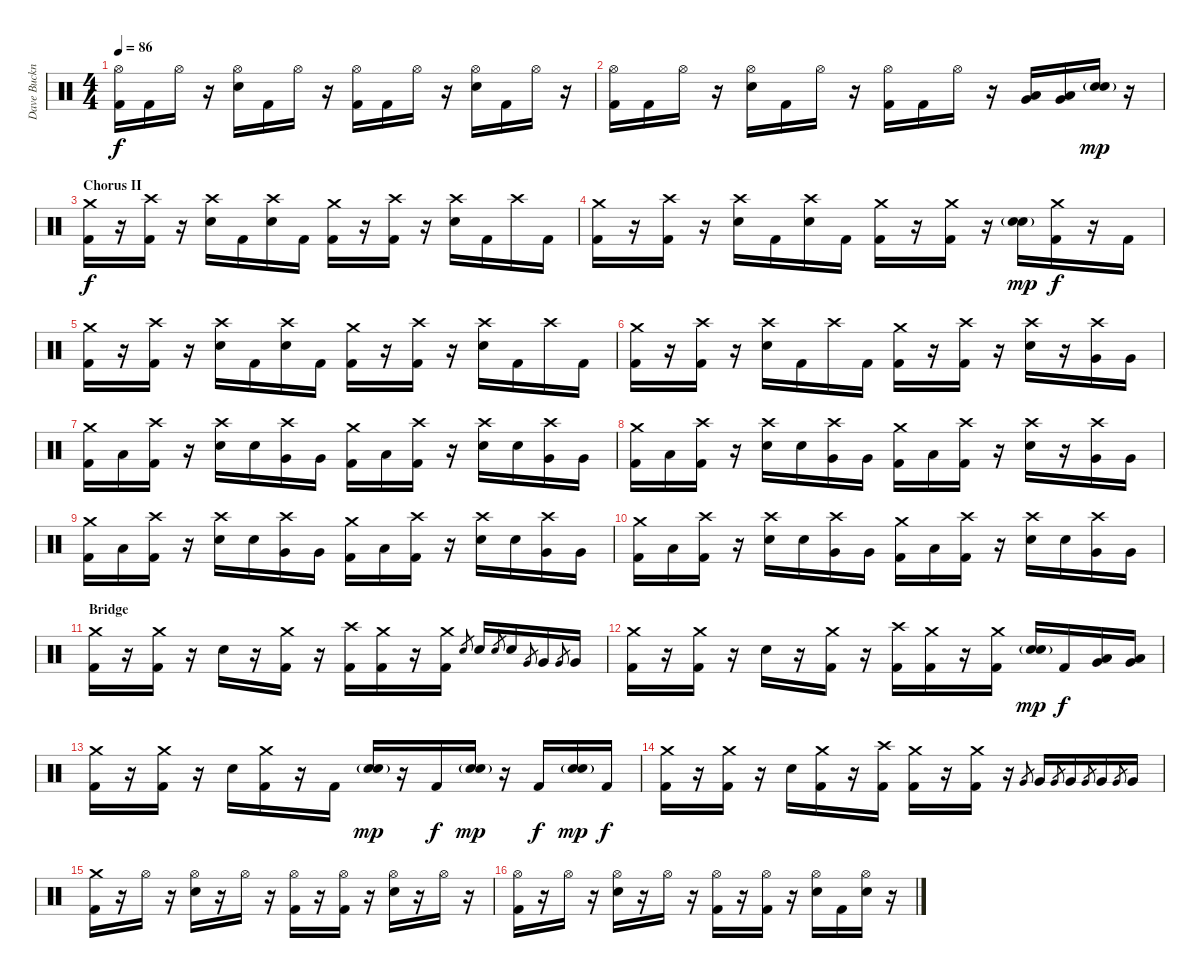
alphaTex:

\track ("Dave Buckner - Drums" "Dave Buckn") {instrument percussion}
\staff {score}
\articulation defaults
\ts (4 4)
\tempo 86
\clef neutral
\ks c
("Hi-Hat (open)" "Kick (hit) 2").16{dy f} "Kick (hit) 2".16 "Hi-Hat (open)".16 r.16 ("Hi-Hat (open)" "Snare (hit) 2").16 "Kick (hit) 2".16 "Hi-Hat (open)".16 r.16 ("Hi-Hat (open)" "Kick (hit) 2").16 "Kick (hit) 2".16 "Hi-Hat (open)".16 r.16 ("Hi-Hat (open)" "Snare (hit) 2").16 "Kick (hit) 2".16 "Hi-Hat (open)".16 r.16 |
("Hi-Hat (open)" "Kick (hit) 2").16 "Kick (hit) 2".16 "Hi-Hat (open)".16 r.16 ("Hi-Hat (open)" "Snare (hit) 2").16 "Kick (hit) 2".16 "Hi-Hat (open)".16 r.16 ("Hi-Hat (open)" "Kick (hit) 2").16 "Kick (hit) 2".16 "Hi-Hat (open)".16 r.16 ("Very Low Tom (hit)" "Low Floor Tom (hit)").16 ("Very Low Tom (hit)" "Low Floor Tom (hit)").16 ("Snare (hit) 2"{g} "Snare (hit) 2").16{dy mp} r.16 |
\section ("" "Chorus II")
("Crash medium (hit)" "Kick (hit) 2").16{dy f} r.16 ("Crash high (hit)" "Kick (hit) 2").16 r.16 ("Crash high (hit)" "Snare (hit) 2").16 "Kick (hit) 2".16 ("Crash high (hit)" "Snare (hit) 2").16 "Kick (hit) 2".16 ("Crash medium (hit)" "Kick (hit) 2").16 r.16 ("Crash high (hit)" "Kick (hit) 2").16 r.16 ("Crash high (hit)" "Snare (hit) 2").16 "Kick (hit) 2".16 "Crash high (hit)".16 "Kick (hit) 2".16 |
("Crash medium (hit)" "Kick (hit) 2").16 r.16 ("Crash high (hit)" "Kick (hit) 2").16 r.16 ("Crash high (hit)" "Snare (hit) 2").16 "Kick (hit) 2".16 ("Crash high (hit)" "Snare (hit) 2").16 "Kick (hit) 2".16 ("Crash medium (hit)" "Kick (hit) 2").16 r.16 ("Crash medium (hit)" "Kick (hit) 2").16 r.16 ("Snare (hit) 2"{g} "Snare (hit) 2").16{dy mp} ("Crash medium (hit)" "Kick (hit) 2").16{dy f} r.16 "Kick (hit) 2".16 |
("Crash medium (hit)" "Kick (hit) 2").16 r.16 ("Crash high (hit)" "Kick (hit) 2").16 r.16 ("Crash high (hit)" "Snare (hit) 2").16 "Kick (hit) 2".16 ("Crash high (hit)" "Snare (hit) 2").16 "Kick (hit) 2".16 ("Crash medium (hit)" "Kick (hit) 2").16 r.16 ("Crash high (hit)" "Kick (hit) 2").16 r.16 ("Crash high (hit)" "Snare (hit) 2").16 "Kick (hit) 2".16 "Crash high (hit)".16 "Kick (hit) 2".16 |
("Crash medium (hit)" "Kick (hit) 2").16 r.16 ("Crash high (hit)" "Kick (hit) 2").16 r.16 ("Crash high (hit)" "Snare (hit) 2").16 "Kick (hit) 2".16 "Crash high (hit)".16 "Kick (hit) 2".16 ("Crash medium (hit)" "Kick (hit) 2").16 r.16 ("Crash high (hit)" "Kick (hit) 2").16 r.16 ("Crash high (hit)" "Snare (hit) 2").16 r.16 ("Crash high (hit)" "Very Low Tom (hit)").16 "Very Low Tom (hit)".16 |
("Crash medium (hit)" "Kick (hit) 2").16 "Low Tom (hit)".16 ("Crash high (hit)" "Kick (hit) 2").16 r.16 ("Crash high (hit)" "Snare (hit) 2").16 "Snare (hit) 2".16 ("Crash high (hit)" "Very Low Tom (hit)").16 "Very Low Tom (hit)".16 ("Crash medium (hit)" "Kick (hit) 2").16 "Low Tom (hit)".16 ("Crash high (hit)" "Kick (hit) 2").16 r.16 ("Crash high (hit)" "Snare (hit) 2").16 "Snare (hit) 2".16 ("Crash high (hit)" "Very Low Tom (hit)").16 "Very Low Tom (hit)".16 |
("Crash medium (hit)" "Kick (hit) 2").16 "Low Tom (hit)".16 ("Crash high (hit)" "Kick (hit) 2").16 r.16 ("Crash high (hit)" "Snare (hit) 2").16 "Snare (hit) 2".16 ("Crash high (hit)" "Very Low Tom (hit)").16 "Very Low Tom (hit)".16 ("Crash medium (hit)" "Kick (hit) 2").16 "Low Tom (hit)".16 ("Crash high (hit)" "Kick (hit) 2").16 r.16 ("Crash high (hit)" "Snare (hit) 2").16 r.16 ("Crash high (hit)" "Very Low Tom (hit)").16 "Very Low Tom (hit)".16 |
("Crash medium (hit)" "Kick (hit) 2").16 "Low Tom (hit)".16 ("Crash high (hit)" "Kick (hit) 2").16 r.16 ("Crash high (hit)" "Snare (hit) 2").16 "Snare (hit) 2".16 ("Crash high (hit)" "Very Low Tom (hit)").16 "Very Low Tom (hit)".16 ("Crash medium (hit)" "Kick (hit) 2").16 "Low Tom (hit)".16 ("Crash high (hit)" "Kick (hit) 2").16 r.16 ("Crash high (hit)" "Snare (hit) 2").16 "Snare (hit) 2".16 ("Crash high (hit)" "Very Low Tom (hit)").16 "Very Low Tom (hit)".16 |
("Crash medium (hit)" "Kick (hit) 2").16 "Low Tom (hit)".16 ("Crash high (hit)" "Kick (hit) 2").16 r.16 ("Crash high (hit)" "Snare (hit) 2").16 "Snare (hit) 2".16 ("Crash high (hit)" "Very Low Tom (hit)").16 "Very Low Tom (hit)".16 ("Crash medium (hit)" "Kick (hit) 2").16 "Low Tom (hit)".16 ("Crash high (hit)" "Kick (hit) 2").16 r.16 ("Crash high (hit)" "Snare (hit) 2").16 "Snare (hit) 2".16 ("Crash high (hit)" "Very Low Tom (hit)").16 "Very Low Tom (hit)".16 |
\section ("" "Bridge")
("Crash medium (hit)" "Kick (hit) 2").16 r.16 ("Crash medium (hit)" "Kick (hit) 2").16 r.16 "Snare (hit) 2".16 r.16 ("Crash medium (hit)" "Kick (hit) 2").16 r.16 ("Crash high (hit)" "Kick (hit) 2").16 ("Crash medium (hit)" "Kick (hit) 2").16 r.16 ("Crash medium (hit)" "Kick (hit) 2").16 "Snare (hit) 2".8{gr} "Snare (hit) 2".16 "Snare (hit) 2".8{gr} "Snare (hit) 2".16 "Very Low Tom (hit)".8{gr} "Very Low Tom (hit)".16 "Very Low Tom (hit)".8{gr} "Very Low Tom (hit)".16 |
("Crash medium (hit)" "Kick (hit) 2").16 r.16 ("Crash medium (hit)" "Kick (hit) 2").16 r.16 "Snare (hit) 2".16 r.16 ("Crash medium (hit)" "Kick (hit) 2").16 r.16 ("Crash high (hit)" "Kick (hit) 2").16 ("Crash medium (hit)" "Kick (hit) 2").16 r.16 ("Crash medium (hit)" "Kick (hit) 2").16 ("Snare (hit) 2"{g} "Snare (hit) 2").16{dy mp} "Kick (hit) 2".16{dy f} ("Very Low Tom (hit)" "Low Floor Tom (hit)").16 ("Very Low Tom (hit)" "Low Floor Tom (hit)").16 |
("Crash medium (hit)" "Kick (hit) 2").16 r.16 ("Crash medium (hit)" "Kick (hit) 2").16 r.16 "Snare (hit) 2".16 ("Crash medium (hit)" "Kick (hit) 2").16 r.16 "Kick (hit) 2".16 ("Snare (hit) 2"{g} "Snare (hit) 2").16{dy mp} r.16 "Kick (hit) 2".16{dy f} ("Snare (hit) 2"{g} "Snare (hit) 2").16{dy mp} r.16 "Kick (hit) 2".16{dy f} ("Snare (hit) 2"{g} "Snare (hit) 2").16{dy mp} "Kick (hit) 2".16{dy f} |
("Crash medium (hit)" "Kick (hit) 2").16 r.16 ("Crash medium (hit)" "Kick (hit) 2").16 r.16 "Snare (hit) 2".16 ("Crash medium (hit)" "Kick (hit) 2").16 r.16 ("Crash high (hit)" "Kick (hit) 2").16 ("Crash medium (hit)" "Kick (hit) 2").16 r.16 ("Crash medium (hit)" "Kick (hit) 2").16 r.16 "Very Low Tom (hit)".8{gr} "Very Low Tom (hit)".16 "Very Low Tom (hit)".8{gr} "Very Low Tom (hit)".16 "Very Low Tom (hit)".8{gr} "Very Low Tom (hit)".16 "Very Low Tom (hit)".8{gr} "Very Low Tom (hit)".16 |
("Crash medium (hit)" "Kick (hit) 2").16 r.16 "Hi-Hat (open)".16 r.16 ("Hi-Hat (open)" "Snare (hit) 2").16 r.16 "Hi-Hat (open)".16 r.16 ("Hi-Hat (open)" "Kick (hit) 2").16 r.16 ("Hi-Hat (open)" "Kick (hit) 2").16 r.16 ("Hi-Hat (open)" "Snare (hit) 2").16 r.16 "Hi-Hat (open)".16 r.16 |
("Hi-Hat (open)" "Kick (hit) 2").16 r.16 "Hi-Hat (open)".16 r.16 ("Hi-Hat (open)" "Snare (hit) 2").16 r.16 "Hi-Hat (open)".16 r.16 ("Hi-Hat (open)" "Kick (hit) 2").16 r.16 ("Hi-Hat (open)" "Kick (hit) 2").16 r.16 ("Hi-Hat (open)" "Snare (hit) 2").16 "Kick (hit) 2".16 ("Hi-Hat (open)" "Snare (hit) 2").16 r.16
